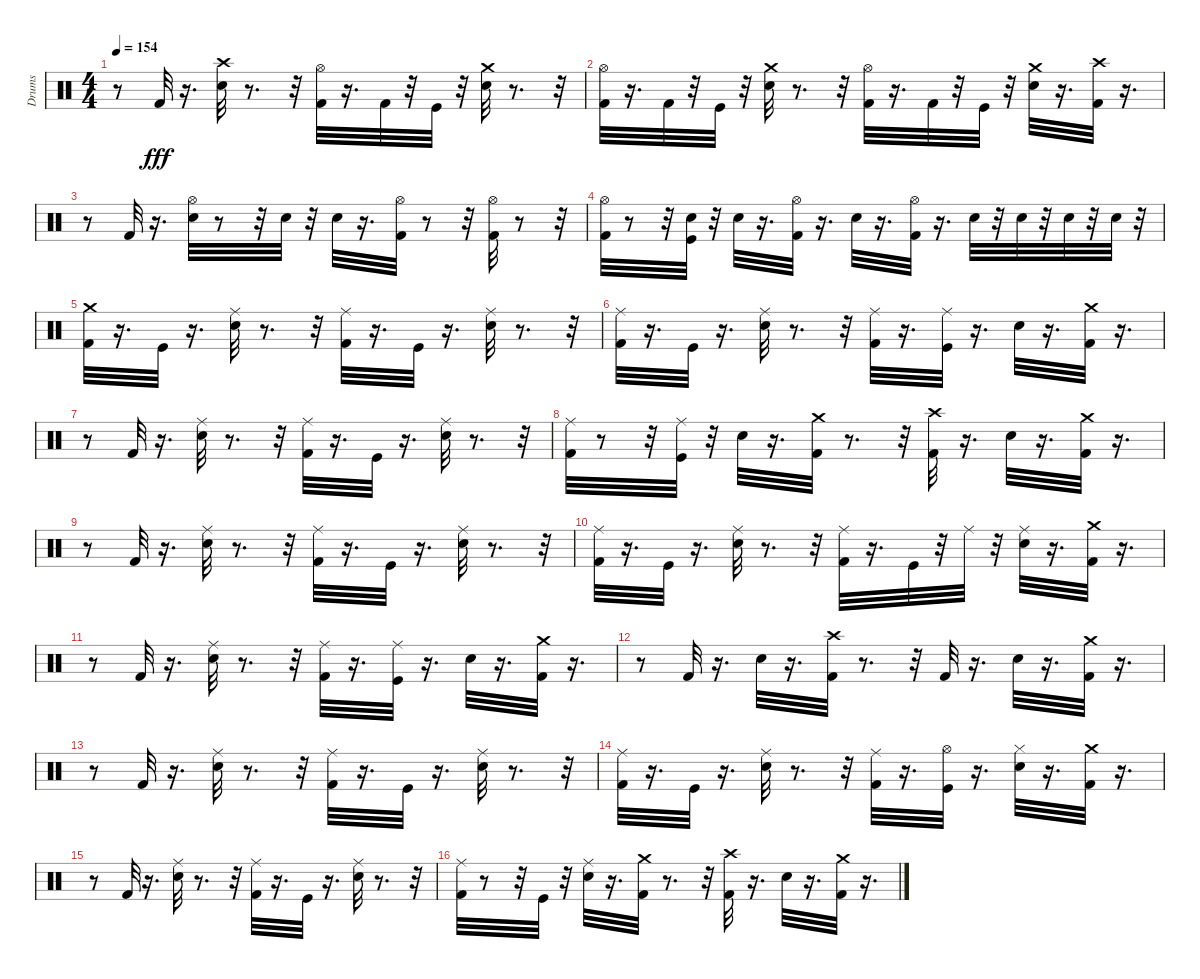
\track ("Drums" "Drums") {instrument percussion}
\staff {score}
\articulation defaults
\ts (4 4)
\tempo 154
\clef neutral
\ks c
r.8{dy fff} "Kick (hit) 2".32 r.16{d} ("Snare (hit) 2" "Crash high (hit)").32 r.8{d} r.32 ("Kick (hit) 2" "Hi-Hat (open)").32 r.16{d} "Kick (hit) 2".32 r.32 "Kick (hit)".32 r.32 ("Snare (hit) 2" "Crash medium (hit)").32 r.8{d} r.32 |
("Kick (hit) 2" "Hi-Hat (open)").32 r.16{d} "Kick (hit) 2".32 r.32 "Kick (hit)".32 r.32 ("Snare (hit) 2" "Crash medium (hit)").32 r.8{d} r.32 ("Kick (hit) 2" "Hi-Hat (open)").32 r.16{d} "Kick (hit) 2".32 r.32 "Kick (hit)".32 r.32 ("Snare (hit) 2" "Crash medium (hit)").32 r.16{d} ("Kick (hit) 2" "Crash high (hit)").32 r.16{d} |
r.8 "Kick (hit) 2".32 r.16{d} ("Snare (hit) 2" "Hi-Hat (open)").32 r.8 r.32 "Snare (hit) 2".32 r.32 "Snare (hit) 2".32 r.16{d} ("Kick (hit) 2" "Hi-Hat (open)").32 r.8 r.32 ("Hi-Hat (open)" "Kick (hit) 2").32 r.8 r.32 |
("Kick (hit) 2" "Hi-Hat (open)").32 r.8 r.32 ("Snare (hit) 2" "Kick (hit)").32 r.32 "Snare (hit) 2".32 r.16{d} ("Kick (hit) 2" "Hi-Hat (open)").32 r.16{d} "Snare (hit) 2".32 r.16{d} ("Kick (hit) 2" "Hi-Hat (open)").32 r.16{d} "Snare (hit) 2".32 r.32 "Snare (hit) 2".32 r.32 "Snare (hit) 2".32 r.32 "Snare (hit) 2".32 r.32 |
("Kick (hit) 2" "Crash medium (hit)").32 r.16{d} "Kick (hit)".32 r.16{d} ("Snare (hit) 2" "Ride (middle)").32 r.8{d} r.32 ("Kick (hit) 2" "Ride (middle)").32 r.16{d} "Kick (hit)".32 r.16{d} ("Snare (hit) 2" "Ride (middle)").32 r.8{d} r.32 |
("Kick (hit) 2" "Ride (middle)").32 r.16{d} "Kick (hit)".32 r.16{d} ("Snare (hit) 2" "Ride (middle)").32 r.8{d} r.32 ("Kick (hit) 2" "Ride (middle)").32 r.16{d} ("Kick (hit)" "Ride (middle)").32 r.16{d} "Snare (hit) 2".32 r.16{d} ("Crash medium (hit)" "Kick (hit) 2").32 r.16{d} |
r.8 "Kick (hit) 2".32 r.16{d} ("Snare (hit) 2" "Ride (middle)").32 r.8{d} r.32 ("Kick (hit) 2" "Ride (middle)").32 r.16{d} "Kick (hit)".32 r.16{d} ("Snare (hit) 2" "Ride (middle)").32 r.8{d} r.32 |
("Kick (hit) 2" "Ride (middle)").32 r.8 r.32 ("Kick (hit)" "Ride (middle)").32 r.32 "Snare (hit) 2".32 r.16{d} ("Kick (hit) 2" "Crash medium (hit)").32 r.8{d} r.32 ("Kick (hit) 2" "Crash high (hit)").32 r.16{d} "Snare (hit) 2".32 r.16{d} ("Kick (hit) 2" "Crash medium (hit)").32 r.16{d} |
r.8 "Kick (hit) 2".32 r.16{d} ("Snare (hit) 2" "Ride (middle)").32 r.8{d} r.32 ("Kick (hit) 2" "Ride (middle)").32 r.16{d} "Kick (hit)".32 r.16{d} ("Snare (hit) 2" "Ride (middle)").32 r.8{d} r.32 |
("Kick (hit) 2" "Ride (middle)").32 r.16{d} "Kick (hit)".32 r.16{d} ("Snare (hit) 2" "Ride (middle)").32 r.8{d} r.32 ("Kick (hit) 2" "Ride (middle)").32 r.16{d} "Kick (hit)".32 r.32 "Ride (middle)".32 r.32 ("Snare (hit) 2" "Ride (middle)").32 r.16{d} ("Kick (hit) 2" "Crash medium (hit)").32 r.16{d} |
r.8 "Kick (hit) 2".32 r.16{d} ("Snare (hit) 2" "Ride (middle)").32 r.8{d} r.32 ("Kick (hit) 2" "Ride (middle)").32 r.16{d} ("Kick (hit)" "Ride (middle)").32 r.16{d} "Snare (hit) 2".32 r.16{d} ("Kick (hit) 2" "Crash medium (hit)").32 r.16{d} |
r.8 "Kick (hit) 2".32 r.16{d} "Snare (hit) 2".32 r.16{d} ("Crash high (hit)" "Kick (hit) 2").32 r.8{d} r.32 "Kick (hit) 2".32 r.16{d} "Snare (hit) 2".32 r.16{d} ("Crash medium (hit)" "Kick (hit) 2").32 r.16{d} |
r.8 "Kick (hit) 2".32 r.16{d} ("Snare (hit) 2" "Ride (middle)").32 r.8{d} r.32 ("Kick (hit) 2" "Ride (middle)").32 r.16{d} "Kick (hit)".32 r.16{d} ("Snare (hit) 2" "Ride (middle)").32 r.8{d} r.32 |
("Kick (hit) 2" "Ride (middle)").32 r.16{d} "Kick (hit)".32 r.16{d} ("Snare (hit) 2" "Ride (middle)").32 r.8{d} r.32 ("Kick (hit) 2" "Ride (middle)").32 r.16{d} ("Kick (hit)" "Hi-Hat (open)").32 r.16{d} ("Snare (hit) 2" "Hi-Hat (closed)").32 r.16{d} ("Kick (hit) 2" "Crash medium (hit)").32 r.16{d} |
r.8 "Kick (hit) 2".32 r.16{d} ("Snare (hit) 2" "Ride (middle)").32 r.8{d} r.32 ("Kick (hit) 2" "Ride (middle)").32 r.16{d} "Kick (hit)".32 r.16{d} ("Snare (hit) 2" "Ride (middle)").32 r.8{d} r.32 |
("Kick (hit) 2" "Ride (middle)").32 r.8 r.32 "Kick (hit)".32 r.32 ("Snare (hit) 2" "Ride (middle)").32 r.16{d} ("Kick (hit) 2" "Crash medium (hit)").32 r.8{d} r.32 ("Kick (hit) 2" "Crash high (hit)").32 r.16{d} "Snare (hit) 2".32 r.16{d} ("Kick (hit) 2" "Crash medium (hit)").32 r.16{d}
